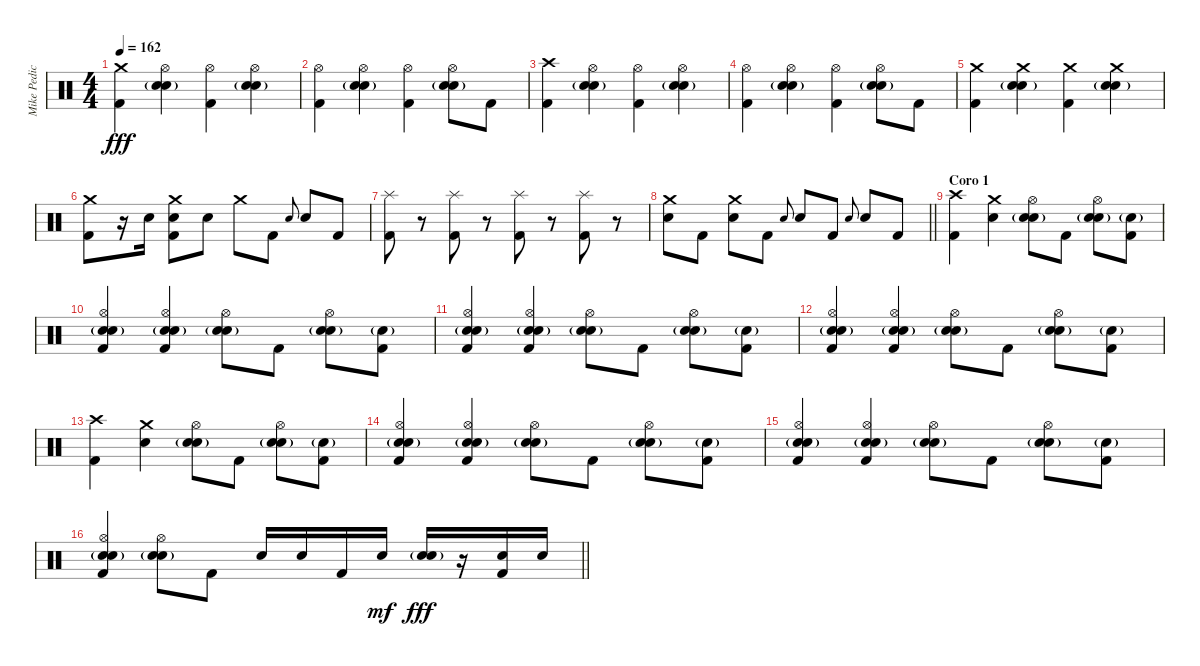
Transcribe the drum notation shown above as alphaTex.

\track ("Mike Pedicone [Drums]" "Mike Pedic") {instrument percussion}
\staff
\articulation defaults
\ts (4 4)
\tempo 162
\clef neutral
\ks c
("Crash medium (hit)" "Kick (hit) 2").4{dy fff} ("Hi-Hat (open)" "Electric Snare (hit)" "Hand Clap (hit)"{g}).4 ("Hi-Hat (open)" "Kick (hit) 2").4 ("Hi-Hat (open)" "Electric Snare (hit)" "Hand Clap (hit)"{g}).4 |
("Hi-Hat (open)" "Kick (hit) 2").4 ("Hi-Hat (open)" "Electric Snare (hit)" "Hand Clap (hit)"{g}).4 ("Hi-Hat (open)" "Kick (hit) 2").4 ("Hi-Hat (open)" "Electric Snare (hit)" "Hand Clap (hit)"{g}).8 "Kick (hit) 2".8 |
("Crash high (hit)" "Kick (hit) 2").4 ("Hi-Hat (open)" "Electric Snare (hit)" "Hand Clap (hit)"{g}).4 ("Hi-Hat (open)" "Kick (hit) 2").4 ("Hi-Hat (open)" "Electric Snare (hit)" "Hand Clap (hit)"{g}).4 |
("Hi-Hat (open)" "Kick (hit) 2").4 ("Hi-Hat (open)" "Electric Snare (hit)" "Hand Clap (hit)"{g}).4 ("Hi-Hat (open)" "Kick (hit) 2").4 ("Hi-Hat (open)" "Electric Snare (hit)" "Hand Clap (hit)"{g}).8 "Kick (hit) 2".8 |
("Crash medium (hit)" "Kick (hit) 2").4 ("Crash medium (hit)" "Electric Snare (hit)" "Hand Clap (hit)"{g}).4 ("Crash medium (hit)" "Kick (hit) 2").4 ("Crash medium (hit)" "Electric Snare (hit)" "Hand Clap (hit)"{g}).4 |
("Crash medium (hit)" "Kick (hit) 2").8 r.16 "Electric Snare (hit)".16 ("Crash medium (hit)" "Electric Snare (hit)" "Kick (hit) 2").8 "Electric Snare (hit)".8 "Crash medium (hit)".8 "Kick (hit) 2".8 "Electric Snare (hit)".8{gr onbeat} "Electric Snare (hit)".8 "Kick (hit) 2".8 |
("Splash (hit)" "Kick (hit) 2").8 r.8 ("Splash (hit)" "Kick (hit) 2").8 r.8 ("Splash (hit)" "Kick (hit) 2").8 r.8 ("Splash (hit)" "Kick (hit) 2").8 r.8 |
\barLineRight lightlight
("Crash medium (hit)" "Electric Snare (hit)").8 "Kick (hit) 2".8 ("Crash medium (hit)" "Electric Snare (hit)").8 "Kick (hit) 2".8 "Electric Snare (hit)".8{gr onbeat} "Electric Snare (hit)".8 "Kick (hit) 2".8 "Electric Snare (hit)".8{gr onbeat} "Electric Snare (hit)".8 "Kick (hit) 2".8 |
\section ("" "Coro 1")
("Crash high (hit)" "Kick (hit) 2").4 ("Crash medium (hit)" "Electric Snare (hit)").4 ("Hi-Hat (open)" "Electric Snare (hit)" "Hand Clap (hit)"{g}).8 "Kick (hit) 2".8 ("Hi-Hat (open)" "Electric Snare (hit)" "Hand Clap (hit)"{g}).8 ("Electric Snare (hit)"{g} "Kick (hit) 2").8 |
("Hi-Hat (open)" "Electric Snare (hit)" "Hand Clap (hit)"{g} "Kick (hit) 2").4 ("Hi-Hat (open)" "Electric Snare (hit)" "Hand Clap (hit)"{g} "Kick (hit) 2").4 ("Hi-Hat (open)" "Electric Snare (hit)" "Hand Clap (hit)"{g}).8 "Kick (hit) 2".8 ("Hi-Hat (open)" "Electric Snare (hit)" "Hand Clap (hit)"{g}).8 ("Electric Snare (hit)"{g} "Kick (hit) 2").8 |
("Hi-Hat (open)" "Electric Snare (hit)" "Hand Clap (hit)"{g} "Kick (hit) 2").4 ("Hi-Hat (open)" "Electric Snare (hit)" "Hand Clap (hit)"{g} "Kick (hit) 2").4 ("Hi-Hat (open)" "Electric Snare (hit)" "Hand Clap (hit)"{g}).8 "Kick (hit) 2".8 ("Hi-Hat (open)" "Electric Snare (hit)" "Hand Clap (hit)"{g}).8 ("Electric Snare (hit)"{g} "Kick (hit) 2").8 |
("Hi-Hat (open)" "Electric Snare (hit)" "Hand Clap (hit)"{g} "Kick (hit) 2").4 ("Hi-Hat (open)" "Electric Snare (hit)" "Hand Clap (hit)"{g} "Kick (hit) 2").4 ("Hi-Hat (open)" "Electric Snare (hit)" "Hand Clap (hit)"{g}).8 "Kick (hit) 2".8 ("Hi-Hat (open)" "Electric Snare (hit)" "Hand Clap (hit)"{g}).8 ("Electric Snare (hit)"{g} "Kick (hit) 2").8 |
("Crash high (hit)" "Kick (hit) 2").4 ("Crash medium (hit)" "Electric Snare (hit)").4 ("Hi-Hat (open)" "Electric Snare (hit)" "Hand Clap (hit)"{g}).8 "Kick (hit) 2".8 ("Hi-Hat (open)" "Electric Snare (hit)" "Hand Clap (hit)"{g}).8 ("Electric Snare (hit)"{g} "Kick (hit) 2").8 |
("Hi-Hat (open)" "Electric Snare (hit)" "Hand Clap (hit)"{g} "Kick (hit) 2").4 ("Hi-Hat (open)" "Electric Snare (hit)" "Hand Clap (hit)"{g} "Kick (hit) 2").4 ("Hi-Hat (open)" "Electric Snare (hit)" "Hand Clap (hit)"{g}).8 "Kick (hit) 2".8 ("Hi-Hat (open)" "Electric Snare (hit)" "Hand Clap (hit)"{g}).8 ("Electric Snare (hit)"{g} "Kick (hit) 2").8 |
("Hi-Hat (open)" "Electric Snare (hit)" "Hand Clap (hit)"{g} "Kick (hit) 2").4 ("Hi-Hat (open)" "Electric Snare (hit)" "Hand Clap (hit)"{g} "Kick (hit) 2").4 ("Hi-Hat (open)" "Electric Snare (hit)" "Hand Clap (hit)"{g}).8 "Kick (hit) 2".8 ("Hi-Hat (open)" "Electric Snare (hit)" "Hand Clap (hit)"{g}).8 ("Electric Snare (hit)"{g} "Kick (hit) 2").8 |
\barLineRight lightlight
("Hi-Hat (open)" "Electric Snare (hit)" "Hand Clap (hit)"{g} "Kick (hit) 2").4 ("Hi-Hat (open)" "Electric Snare (hit)" "Hand Clap (hit)"{g}).8 "Kick (hit) 2".8 "Electric Snare (hit)".16 "Electric Snare (hit)".16 "Kick (hit) 2".16 "Electric Snare (hit)".16{dy mf} ("Electric Snare (hit)" "Hand Clap (hit)"{g}).16{dy fff} r.16 ("Electric Snare (hit)" "Kick (hit) 2").16 "Electric Snare (hit)".16
